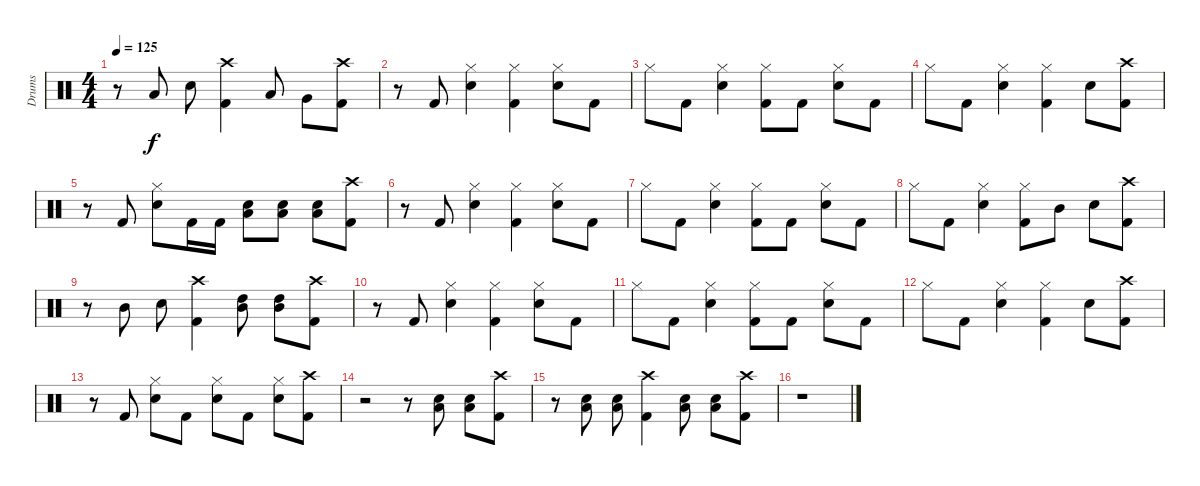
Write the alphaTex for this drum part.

\track ("Drums" "Drums") {instrument percussion}
\staff {score}
\articulation defaults
\ts (4 4)
\tempo 125
\clef neutral
\ks c
r.8{dy f} "Low Tom (hit)".8 "Electric Snare (hit)".8 ("Crash high (hit)" "Kick (hit) 2").4 "Low Tom (hit)".8 "Very Low Tom (hit)".8 ("Crash high (hit)" "Kick (hit) 2").8 |
r.8 "Kick (hit) 2".8 ("Hi-Hat (closed)" "Electric Snare (hit)").4 ("Hi-Hat (closed)" "Kick (hit) 2").4 ("Hi-Hat (closed)" "Electric Snare (hit)").8 "Kick (hit) 2".8 |
"Hi-Hat (closed)".8 "Kick (hit) 2".8 ("Hi-Hat (closed)" "Electric Snare (hit)").4 ("Hi-Hat (closed)" "Kick (hit) 2").8 "Kick (hit) 2".8 ("Hi-Hat (closed)" "Electric Snare (hit)").8 "Kick (hit) 2".8 |
"Hi-Hat (closed)".8 "Kick (hit) 2".8 ("Hi-Hat (closed)" "Electric Snare (hit)").4 ("Hi-Hat (closed)" "Kick (hit) 2").4 "Electric Snare (hit)".8 ("Crash high (hit)" "Kick (hit) 2").8 |
r.8 "Kick (hit) 2".8 ("Hi-Hat (closed)" "Electric Snare (hit)").8 "Kick (hit) 2".16 "Kick (hit) 2".16 ("Electric Snare (hit)" "Low Tom (hit)").8 ("Electric Snare (hit)" "Low Tom (hit)").8 ("Electric Snare (hit)" "Low Tom (hit)").8 ("Crash high (hit)" "Kick (hit) 2").8 |
r.8 "Kick (hit) 2".8 ("Hi-Hat (closed)" "Electric Snare (hit)").4 ("Hi-Hat (closed)" "Kick (hit) 2").4 ("Hi-Hat (closed)" "Electric Snare (hit)").8 "Kick (hit) 2".8 |
"Hi-Hat (closed)".8 "Kick (hit) 2".8 ("Hi-Hat (closed)" "Electric Snare (hit)").4 ("Hi-Hat (closed)" "Kick (hit) 2").8 "Kick (hit) 2".8 ("Hi-Hat (closed)" "Electric Snare (hit)").8 "Kick (hit) 2".8 |
"Hi-Hat (closed)".8 "Kick (hit) 2".8 ("Hi-Hat (closed)" "Electric Snare (hit)").4 ("Hi-Hat (closed)" "Kick (hit) 2").8 "Mid Tom (hit)".8 "Electric Snare (hit)".8 ("Crash high (hit)" "Kick (hit) 2").8 |
r.8 "Mid Tom (hit)".8 "Electric Snare (hit)".8 ("Crash high (hit)" "Kick (hit) 2").4 ("Mid Tom (hit)" "High Tom (hit)").8 ("Mid Tom (hit)" "High Tom (hit)").8 ("Crash high (hit)" "Kick (hit) 2").8 |
r.8 "Kick (hit) 2".8 ("Hi-Hat (closed)" "Electric Snare (hit)").4 ("Hi-Hat (closed)" "Kick (hit) 2").4 ("Hi-Hat (closed)" "Electric Snare (hit)").8 "Kick (hit) 2".8 |
"Hi-Hat (closed)".8 "Kick (hit) 2".8 ("Hi-Hat (closed)" "Electric Snare (hit)").4 ("Hi-Hat (closed)" "Kick (hit) 2").8 "Kick (hit) 2".8 ("Hi-Hat (closed)" "Electric Snare (hit)").8 "Kick (hit) 2".8 |
"Hi-Hat (closed)".8 "Kick (hit) 2".8 ("Hi-Hat (closed)" "Electric Snare (hit)").4 ("Hi-Hat (closed)" "Kick (hit) 2").4 "Electric Snare (hit)".8 ("Crash high (hit)" "Kick (hit) 2").8 |
r.8 "Kick (hit) 2".8 ("Hi-Hat (closed)" "Electric Snare (hit)").8 "Kick (hit) 2".8 ("Hi-Hat (closed)" "Electric Snare (hit)").8 "Kick (hit) 2".8 ("Hi-Hat (closed)" "Electric Snare (hit)").8 ("Crash high (hit)" "Kick (hit) 2").8 |
r.2 r.8 ("Electric Snare (hit)" "Low Tom (hit)").8 ("Electric Snare (hit)" "Low Tom (hit)").8 ("Crash high (hit)" "Kick (hit) 2").8 |
r.8 ("Electric Snare (hit)" "Low Tom (hit)").8 ("Electric Snare (hit)" "Low Tom (hit)").8 ("Crash high (hit)" "Kick (hit) 2").4 ("Electric Snare (hit)" "Low Tom (hit)").8 ("Electric Snare (hit)" "Low Tom (hit)").8 ("Crash high (hit)" "Kick (hit) 2").8 |
r.1
